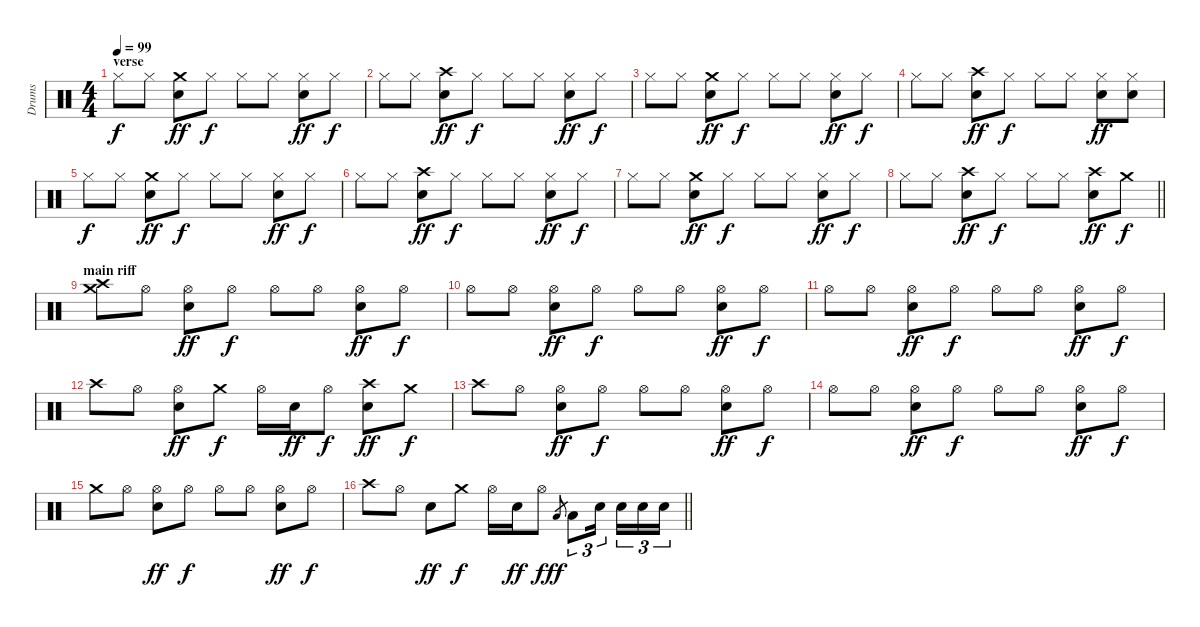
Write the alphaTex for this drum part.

\track ("Drums" "Drums") {instrument percussion}
\staff {score}
\articulation defaults
\ts (4 4)
\section ("" "verse")
\tempo 99
\clef neutral
\ks c "Hi-Hat (closed)".8{dy f} "Hi-Hat (closed)".8
("Crash medium (hit)" "Snare (hit) 2").8{dy ff} "Hi-Hat (closed)".8{dy f} "Hi-Hat (closed)".8 "Hi-Hat (closed)".8 ("Hi-Hat (closed)" "Snare (hit) 2").8{dy ff} "Hi-Hat (closed)".8{dy f} |
"Hi-Hat (closed)".8 "Hi-Hat (closed)".8 ("Crash high (hit)" "Snare (hit) 2").8{dy ff} "Hi-Hat (closed)".8{dy f} "Hi-Hat (closed)".8 "Hi-Hat (closed)".8 ("Hi-Hat (closed)" "Snare (hit) 2").8{dy ff} "Hi-Hat (closed)".8{dy f} |
"Hi-Hat (closed)".8 "Hi-Hat (closed)".8 ("Crash medium (hit)" "Snare (hit) 2").8{dy ff} "Hi-Hat (closed)".8{dy f} "Hi-Hat (closed)".8 "Hi-Hat (closed)".8 ("Hi-Hat (closed)" "Snare (hit) 2").8{dy ff} "Hi-Hat (closed)".8{dy f} |
"Hi-Hat (closed)".8 "Hi-Hat (closed)".8 ("Crash high (hit)" "Snare (hit) 2").8{dy ff} "Hi-Hat (closed)".8{dy f} "Hi-Hat (closed)".8 "Hi-Hat (closed)".8 ("Hi-Hat (closed)" "Snare (hit) 2").8{dy ff} ("Hi-Hat (closed)" "Snare (hit) 2").8 |
"Hi-Hat (closed)".8{dy f} "Hi-Hat (closed)".8 ("Crash medium (hit)" "Snare (hit) 2").8{dy ff} "Hi-Hat (closed)".8{dy f} "Hi-Hat (closed)".8 "Hi-Hat (closed)".8 ("Hi-Hat (closed)" "Snare (hit) 2").8{dy ff} "Hi-Hat (closed)".8{dy f} |
"Hi-Hat (closed)".8 "Hi-Hat (closed)".8 ("Crash high (hit)" "Snare (hit) 2").8{dy ff} "Hi-Hat (closed)".8{dy f} "Hi-Hat (closed)".8 "Hi-Hat (closed)".8 ("Hi-Hat (closed)" "Snare (hit) 2").8{dy ff} "Hi-Hat (closed)".8{dy f} |
"Hi-Hat (closed)".8 "Hi-Hat (closed)".8 ("Crash medium (hit)" "Snare (hit) 2").8{dy ff} "Hi-Hat (closed)".8{dy f} "Hi-Hat (closed)".8 "Hi-Hat (closed)".8 ("Hi-Hat (closed)" "Snare (hit) 2").8{dy ff} "Hi-Hat (closed)".8{dy f} |
\barLineRight lightlight "Hi-Hat (closed)".8 "Hi-Hat (closed)".8
("Crash high (hit)" "Snare (hit) 2").8{dy ff} "Hi-Hat (closed)".8{dy f} "Hi-Hat (closed)".8 "Hi-Hat (closed)".8 ("Crash high (hit)" "Snare (hit) 2").8{dy ff} "Crash medium (hit)".8{dy f} |
\section ("" "main riff")
("Crash high (hit)" "Crash medium (hit)").8 "Hi-Hat (open)".8 ("Hi-Hat (open)" "Snare (hit) 2").8{dy ff} "Hi-Hat (open)".8{dy f} "Hi-Hat (open)".8 "Hi-Hat (open)".8 ("Hi-Hat (open)" "Snare (hit) 2").8{dy ff} "Hi-Hat (open)".8{dy f} |
"Hi-Hat (open)".8 "Hi-Hat (open)".8 ("Hi-Hat (open)" "Snare (hit) 2").8{dy ff} "Hi-Hat (open)".8{dy f} "Hi-Hat (open)".8 "Hi-Hat (open)".8 ("Hi-Hat (open)" "Snare (hit) 2").8{dy ff} "Hi-Hat (open)".8{dy f} |
"Hi-Hat (open)".8 "Hi-Hat (open)".8 ("Hi-Hat (open)" "Snare (hit) 2").8{dy ff} "Hi-Hat (open)".8{dy f} "Hi-Hat (open)".8 "Hi-Hat (open)".8 ("Hi-Hat (open)" "Snare (hit) 2").8{dy ff} "Hi-Hat (open)".8{dy f} |
"Crash high (hit)".8 "Hi-Hat (open)".8 ("Hi-Hat (open)" "Snare (hit) 2").8{dy ff} "Crash medium (hit)".8{dy f} "Hi-Hat (open)".16 "Snare (hit) 2".16{dy ff} "Hi-Hat (open)".8{dy f} ("Crash high (hit)" "Snare (hit) 2").8{dy ff} "Crash medium (hit)".8{dy f} |
"Crash high (hit)".8 "Hi-Hat (open)".8 ("Hi-Hat (open)" "Snare (hit) 2").8{dy ff} "Hi-Hat (open)".8{dy f} "Hi-Hat (open)".8 "Hi-Hat (open)".8 ("Hi-Hat (open)" "Snare (hit) 2").8{dy ff} "Hi-Hat (open)".8{dy f} |
"Hi-Hat (open)".8 "Hi-Hat (open)".8 ("Hi-Hat (open)" "Snare (hit) 2").8{dy ff} "Hi-Hat (open)".8{dy f} "Hi-Hat (open)".8 "Hi-Hat (open)".8 ("Hi-Hat (open)" "Snare (hit) 2").8{dy ff} "Hi-Hat (open)".8{dy f} |
"Crash medium (hit)".8 "Hi-Hat (open)".8 ("Hi-Hat (open)" "Snare (hit) 2").8{dy ff} "Hi-Hat (open)".8{dy f} "Hi-Hat (open)".8 "Hi-Hat (open)".8 ("Hi-Hat (open)" "Snare (hit) 2").8{dy ff} "Hi-Hat (open)".8{dy f} |
\barLineRight lightlight "Crash high (hit)".8 "Hi-Hat (open)".8 "Snare (hit) 2".8{dy ff} "Crash medium (hit)".8{dy f} "Hi-Hat (open)".16 "Snare (hit) 2".16{dy ff} "Hi-Hat (open)".8{dy f} "Low Floor Tom (hit)".8{gr dy ff} "Low Floor Tom (hit)".8{tu (3 2)} "Snare (hit) 2".16{tu (3 2) beam splitsecondary} "Snare (hit) 2".16{tu (3 2)} "Snare (hit) 2".16{tu (3 2)} "Snare (hit) 2".16{tu (3 2)}
